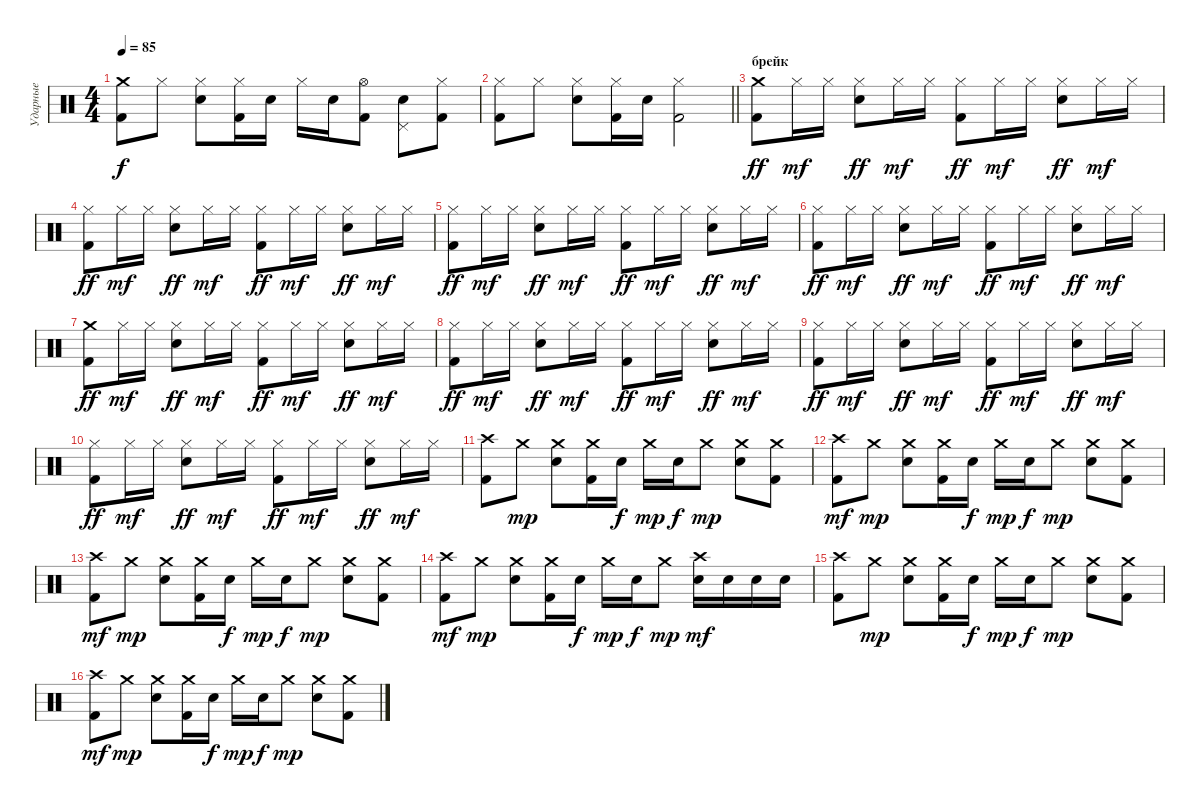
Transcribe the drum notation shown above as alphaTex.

\track ("Ударные" "Ударные") {instrument percussion}
\staff {score}
\articulation defaults
\ts (4 4)
\tempo 85
\clef neutral
\ks c
("Crash medium (hit)" "Kick (hit) 2").8{dy f} "Hi-Hat (closed)".8 ("Hi-Hat (closed)" "Snare (hit) 2").8 ("Hi-Hat (closed)" "Kick (hit) 2").16 "Snare (hit) 2".16 "Hi-Hat (closed)".16 "Snare (hit) 2".16 ("Hi-Hat (open)" "Kick (hit) 2").8 ("Snare (hit) 2" "Pedal Hi-Hat (hit)").8 ("Hi-Hat (closed)" "Kick (hit) 2").8 |
\barLineRight lightlight
("Hi-Hat (closed)" "Kick (hit) 2").8 "Hi-Hat (closed)".8 ("Hi-Hat (closed)" "Snare (hit) 2").8 ("Hi-Hat (closed)" "Kick (hit) 2").16 "Snare (hit) 2".16 ("Hi-Hat (closed)" "Kick (hit) 2").2 |
\section ("" "брейк")
("Crash medium (hit)" "Kick (hit) 2").8{dy ff} "Hi-Hat (closed)".16{dy mf} "Hi-Hat (closed)".16 ("Hi-Hat (closed)" "Snare (hit) 2").8{dy ff} "Hi-Hat (closed)".16{dy mf} "Hi-Hat (closed)".16 ("Hi-Hat (closed)" "Kick (hit) 2").8{dy ff} "Hi-Hat (closed)".16{dy mf} "Hi-Hat (closed)".16 ("Hi-Hat (closed)" "Snare (hit) 2").8{dy ff} "Hi-Hat (closed)".16{dy mf} "Hi-Hat (closed)".16 |
("Hi-Hat (closed)" "Kick (hit) 2").8{dy ff} "Hi-Hat (closed)".16{dy mf} "Hi-Hat (closed)".16 ("Hi-Hat (closed)" "Snare (hit) 2").8{dy ff} "Hi-Hat (closed)".16{dy mf} "Hi-Hat (closed)".16 ("Hi-Hat (closed)" "Kick (hit) 2").8{dy ff} "Hi-Hat (closed)".16{dy mf} "Hi-Hat (closed)".16 ("Hi-Hat (closed)" "Snare (hit) 2").8{dy ff} "Hi-Hat (closed)".16{dy mf} "Hi-Hat (closed)".16 |
("Hi-Hat (closed)" "Kick (hit) 2").8{dy ff} "Hi-Hat (closed)".16{dy mf} "Hi-Hat (closed)".16 ("Hi-Hat (closed)" "Snare (hit) 2").8{dy ff} "Hi-Hat (closed)".16{dy mf} "Hi-Hat (closed)".16 ("Hi-Hat (closed)" "Kick (hit) 2").8{dy ff} "Hi-Hat (closed)".16{dy mf} "Hi-Hat (closed)".16 ("Hi-Hat (closed)" "Snare (hit) 2").8{dy ff} "Hi-Hat (closed)".16{dy mf} "Hi-Hat (closed)".16 |
("Hi-Hat (closed)" "Kick (hit) 2").8{dy ff} "Hi-Hat (closed)".16{dy mf} "Hi-Hat (closed)".16 ("Hi-Hat (closed)" "Snare (hit) 2").8{dy ff} "Hi-Hat (closed)".16{dy mf} "Hi-Hat (closed)".16 ("Hi-Hat (closed)" "Kick (hit) 2").8{dy ff} "Hi-Hat (closed)".16{dy mf} "Hi-Hat (closed)".16 ("Hi-Hat (closed)" "Snare (hit) 2").8{dy ff} "Hi-Hat (closed)".16{dy mf} "Hi-Hat (closed)".16 |
("Crash medium (hit)" "Kick (hit) 2").8{dy ff} "Hi-Hat (closed)".16{dy mf} "Hi-Hat (closed)".16 ("Hi-Hat (closed)" "Snare (hit) 2").8{dy ff} "Hi-Hat (closed)".16{dy mf} "Hi-Hat (closed)".16 ("Hi-Hat (closed)" "Kick (hit) 2").8{dy ff} "Hi-Hat (closed)".16{dy mf} "Hi-Hat (closed)".16 ("Hi-Hat (closed)" "Snare (hit) 2").8{dy ff} "Hi-Hat (closed)".16{dy mf} "Hi-Hat (closed)".16 |
("Hi-Hat (closed)" "Kick (hit) 2").8{dy ff} "Hi-Hat (closed)".16{dy mf} "Hi-Hat (closed)".16 ("Hi-Hat (closed)" "Snare (hit) 2").8{dy ff} "Hi-Hat (closed)".16{dy mf} "Hi-Hat (closed)".16 ("Hi-Hat (closed)" "Kick (hit) 2").8{dy ff} "Hi-Hat (closed)".16{dy mf} "Hi-Hat (closed)".16 ("Hi-Hat (closed)" "Snare (hit) 2").8{dy ff} "Hi-Hat (closed)".16{dy mf} "Hi-Hat (closed)".16 |
("Hi-Hat (closed)" "Kick (hit) 2").8{dy ff} "Hi-Hat (closed)".16{dy mf} "Hi-Hat (closed)".16 ("Hi-Hat (closed)" "Snare (hit) 2").8{dy ff} "Hi-Hat (closed)".16{dy mf} "Hi-Hat (closed)".16 ("Hi-Hat (closed)" "Kick (hit) 2").8{dy ff} "Hi-Hat (closed)".16{dy mf} "Hi-Hat (closed)".16 ("Hi-Hat (closed)" "Snare (hit) 2").8{dy ff} "Hi-Hat (closed)".16{dy mf} "Hi-Hat (closed)".16 |
("Hi-Hat (closed)" "Kick (hit) 2").8{dy ff} "Hi-Hat (closed)".16{dy mf} "Hi-Hat (closed)".16 ("Hi-Hat (closed)" "Snare (hit) 2").8{dy ff} "Hi-Hat (closed)".16{dy mf} "Hi-Hat (closed)".16 ("Hi-Hat (closed)" "Kick (hit) 2").8{dy ff} "Hi-Hat (closed)".16{dy mf} "Hi-Hat (closed)".16 ("Hi-Hat (closed)" "Snare (hit) 2").8{dy ff} "Hi-Hat (closed)".16{dy mf} "Hi-Hat (closed)".16 |
("Crash high (hit)" "Kick (hit) 2").8 "Crash medium (hit)".8{dy mp} ("Crash medium (hit)" "Snare (hit) 2").8 ("Crash medium (hit)" "Kick (hit) 2").16 "Snare (hit) 2".16{dy f} "Crash medium (hit)".16{dy mp} "Snare (hit) 2".16{dy f} "Crash medium (hit)".8{dy mp} ("Crash medium (hit)" "Snare (hit) 2").8 ("Crash medium (hit)" "Kick (hit) 2").8 |
("Crash high (hit)" "Kick (hit) 2").8{dy mf} "Crash medium (hit)".8{dy mp} ("Crash medium (hit)" "Snare (hit) 2").8 ("Crash medium (hit)" "Kick (hit) 2").16 "Snare (hit) 2".16{dy f} "Crash medium (hit)".16{dy mp} "Snare (hit) 2".16{dy f} "Crash medium (hit)".8{dy mp} ("Crash medium (hit)" "Snare (hit) 2").8 ("Crash medium (hit)" "Kick (hit) 2").8 |
("Crash high (hit)" "Kick (hit) 2").8{dy mf} "Crash medium (hit)".8{dy mp} ("Crash medium (hit)" "Snare (hit) 2").8 ("Crash medium (hit)" "Kick (hit) 2").16 "Snare (hit) 2".16{dy f} "Crash medium (hit)".16{dy mp} "Snare (hit) 2".16{dy f} "Crash medium (hit)".8{dy mp} ("Crash medium (hit)" "Snare (hit) 2").8 ("Crash medium (hit)" "Kick (hit) 2").8 |
("Crash high (hit)" "Kick (hit) 2").8{dy mf} "Crash medium (hit)".8{dy mp} ("Crash medium (hit)" "Snare (hit) 2").8 ("Crash medium (hit)" "Kick (hit) 2").16 "Snare (hit) 2".16{dy f} "Crash medium (hit)".16{dy mp} "Snare (hit) 2".16{dy f} "Crash medium (hit)".8{dy mp} ("Crash high (hit)" "Snare (hit) 2").16{dy mf} "Snare (hit) 2".16 "Snare (hit) 2".16 "Snare (hit) 2".16 |
("Crash high (hit)" "Kick (hit) 2").8 "Crash medium (hit)".8{dy mp} ("Crash medium (hit)" "Snare (hit) 2").8 ("Crash medium (hit)" "Kick (hit) 2").16 "Snare (hit) 2".16{dy f} "Crash medium (hit)".16{dy mp} "Snare (hit) 2".16{dy f} "Crash medium (hit)".8{dy mp} ("Crash medium (hit)" "Snare (hit) 2").8 ("Crash medium (hit)" "Kick (hit) 2").8 |
("Crash high (hit)" "Kick (hit) 2").8{dy mf} "Crash medium (hit)".8{dy mp} ("Crash medium (hit)" "Snare (hit) 2").8 ("Crash medium (hit)" "Kick (hit) 2").16 "Snare (hit) 2".16{dy f} "Crash medium (hit)".16{dy mp} "Snare (hit) 2".16{dy f} "Crash medium (hit)".8{dy mp} ("Crash medium (hit)" "Snare (hit) 2").8 ("Crash medium (hit)" "Kick (hit) 2").8
